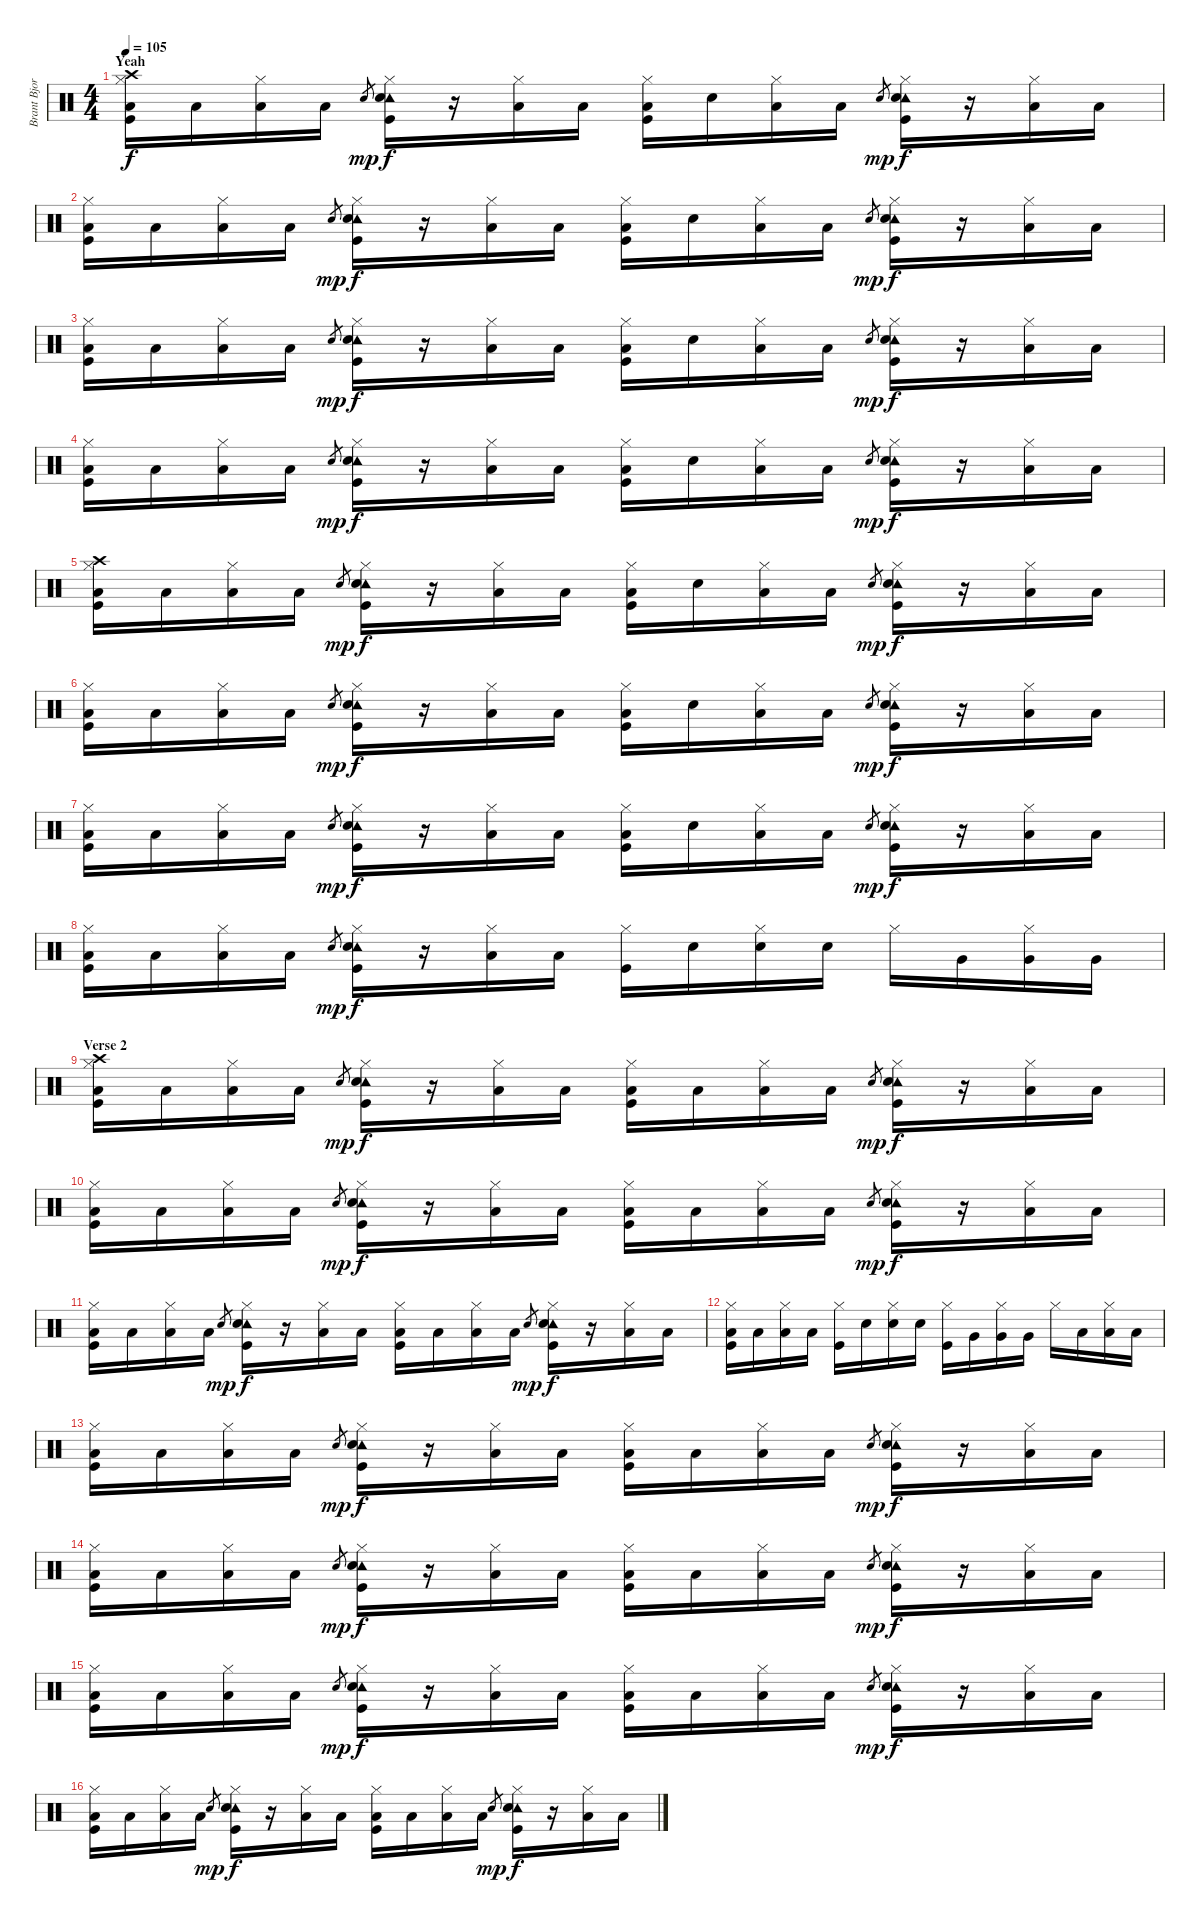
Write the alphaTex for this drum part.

\track ("Brant Bjork - Drums" "Brant Bjor") {instrument percussion}
\staff {score}
\articulation defaults
\ts (4 4)
\section ("" "Yeah")
\tempo 105
\clef neutral
\ks c
("Crash high (hit)" "Hi-Hat (closed)" "Low Floor Tom (hit)" "Kick (hit)").16{dy f} "Low Floor Tom (hit)".16 ("Hi-Hat (closed)" "Low Floor Tom (hit)").16 "Low Floor Tom (hit)".16 "Snare (hit) 2".8{gr dy mp} ("Tambourine (hit)" "Hi-Hat (closed)" "Snare (hit) 2" "Kick (hit)").16{dy f} r.16 ("Hi-Hat (closed)" "Low Floor Tom (hit)").16 "Low Floor Tom (hit)".16 ("Hi-Hat (closed)" "Low Floor Tom (hit)" "Kick (hit)").16 "Snare (hit) 2".16 ("Hi-Hat (closed)" "Low Floor Tom (hit)").16 "Low Floor Tom (hit)".16 "Snare (hit) 2".8{gr dy mp} ("Tambourine (hit)" "Hi-Hat (closed)" "Snare (hit) 2" "Kick (hit)").16{dy f} r.16 ("Hi-Hat (closed)" "Low Floor Tom (hit)").16 "Low Floor Tom (hit)".16 |
("Hi-Hat (closed)" "Low Floor Tom (hit)" "Kick (hit)").16 "Low Floor Tom (hit)".16 ("Hi-Hat (closed)" "Low Floor Tom (hit)").16 "Low Floor Tom (hit)".16 "Snare (hit) 2".8{gr dy mp} ("Tambourine (hit)" "Hi-Hat (closed)" "Snare (hit) 2" "Kick (hit)").16{dy f} r.16 ("Hi-Hat (closed)" "Low Floor Tom (hit)").16 "Low Floor Tom (hit)".16 ("Hi-Hat (closed)" "Low Floor Tom (hit)" "Kick (hit)").16 "Snare (hit) 2".16 ("Hi-Hat (closed)" "Low Floor Tom (hit)").16 "Low Floor Tom (hit)".16 "Snare (hit) 2".8{gr dy mp} ("Tambourine (hit)" "Hi-Hat (closed)" "Snare (hit) 2" "Kick (hit)").16{dy f} r.16 ("Hi-Hat (closed)" "Low Floor Tom (hit)").16 "Low Floor Tom (hit)".16 |
("Hi-Hat (closed)" "Low Floor Tom (hit)" "Kick (hit)").16 "Low Floor Tom (hit)".16 ("Hi-Hat (closed)" "Low Floor Tom (hit)").16 "Low Floor Tom (hit)".16 "Snare (hit) 2".8{gr dy mp} ("Tambourine (hit)" "Hi-Hat (closed)" "Snare (hit) 2" "Kick (hit)").16{dy f} r.16 ("Hi-Hat (closed)" "Low Floor Tom (hit)").16 "Low Floor Tom (hit)".16 ("Hi-Hat (closed)" "Low Floor Tom (hit)" "Kick (hit)").16 "Snare (hit) 2".16 ("Hi-Hat (closed)" "Low Floor Tom (hit)").16 "Low Floor Tom (hit)".16 "Snare (hit) 2".8{gr dy mp} ("Tambourine (hit)" "Hi-Hat (closed)" "Snare (hit) 2" "Kick (hit)").16{dy f} r.16 ("Hi-Hat (closed)" "Low Floor Tom (hit)").16 "Low Floor Tom (hit)".16 |
("Hi-Hat (closed)" "Low Floor Tom (hit)" "Kick (hit)").16 "Low Floor Tom (hit)".16 ("Hi-Hat (closed)" "Low Floor Tom (hit)").16 "Low Floor Tom (hit)".16 "Snare (hit) 2".8{gr dy mp} ("Tambourine (hit)" "Hi-Hat (closed)" "Snare (hit) 2" "Kick (hit)").16{dy f} r.16 ("Hi-Hat (closed)" "Low Floor Tom (hit)").16 "Low Floor Tom (hit)".16 ("Hi-Hat (closed)" "Low Floor Tom (hit)" "Kick (hit)").16 "Snare (hit) 2".16 ("Hi-Hat (closed)" "Low Floor Tom (hit)").16 "Low Floor Tom (hit)".16 "Snare (hit) 2".8{gr dy mp} ("Tambourine (hit)" "Hi-Hat (closed)" "Snare (hit) 2" "Kick (hit)").16{dy f} r.16 ("Hi-Hat (closed)" "Low Floor Tom (hit)").16 "Low Floor Tom (hit)".16 |
("Crash high (hit)" "Hi-Hat (closed)" "Low Floor Tom (hit)" "Kick (hit)").16 "Low Floor Tom (hit)".16 ("Hi-Hat (closed)" "Low Floor Tom (hit)").16 "Low Floor Tom (hit)".16 "Snare (hit) 2".8{gr dy mp} ("Tambourine (hit)" "Hi-Hat (closed)" "Snare (hit) 2" "Kick (hit)").16{dy f} r.16 ("Hi-Hat (closed)" "Low Floor Tom (hit)").16 "Low Floor Tom (hit)".16 ("Hi-Hat (closed)" "Low Floor Tom (hit)" "Kick (hit)").16 "Snare (hit) 2".16 ("Hi-Hat (closed)" "Low Floor Tom (hit)").16 "Low Floor Tom (hit)".16 "Snare (hit) 2".8{gr dy mp} ("Tambourine (hit)" "Hi-Hat (closed)" "Snare (hit) 2" "Kick (hit)").16{dy f} r.16 ("Hi-Hat (closed)" "Low Floor Tom (hit)").16 "Low Floor Tom (hit)".16 |
("Hi-Hat (closed)" "Low Floor Tom (hit)" "Kick (hit)").16 "Low Floor Tom (hit)".16 ("Hi-Hat (closed)" "Low Floor Tom (hit)").16 "Low Floor Tom (hit)".16 "Snare (hit) 2".8{gr dy mp} ("Tambourine (hit)" "Hi-Hat (closed)" "Snare (hit) 2" "Kick (hit)").16{dy f} r.16 ("Hi-Hat (closed)" "Low Floor Tom (hit)").16 "Low Floor Tom (hit)".16 ("Hi-Hat (closed)" "Low Floor Tom (hit)" "Kick (hit)").16 "Snare (hit) 2".16 ("Hi-Hat (closed)" "Low Floor Tom (hit)").16 "Low Floor Tom (hit)".16 "Snare (hit) 2".8{gr dy mp} ("Tambourine (hit)" "Hi-Hat (closed)" "Snare (hit) 2" "Kick (hit)").16{dy f} r.16 ("Hi-Hat (closed)" "Low Floor Tom (hit)").16 "Low Floor Tom (hit)".16 |
("Hi-Hat (closed)" "Low Floor Tom (hit)" "Kick (hit)").16 "Low Floor Tom (hit)".16 ("Hi-Hat (closed)" "Low Floor Tom (hit)").16 "Low Floor Tom (hit)".16 "Snare (hit) 2".8{gr dy mp} ("Tambourine (hit)" "Hi-Hat (closed)" "Snare (hit) 2" "Kick (hit)").16{dy f} r.16 ("Hi-Hat (closed)" "Low Floor Tom (hit)").16 "Low Floor Tom (hit)".16 ("Hi-Hat (closed)" "Low Floor Tom (hit)" "Kick (hit)").16 "Snare (hit) 2".16 ("Hi-Hat (closed)" "Low Floor Tom (hit)").16 "Low Floor Tom (hit)".16 "Snare (hit) 2".8{gr dy mp} ("Tambourine (hit)" "Hi-Hat (closed)" "Snare (hit) 2" "Kick (hit)").16{dy f} r.16 ("Hi-Hat (closed)" "Low Floor Tom (hit)").16 "Low Floor Tom (hit)".16 |
("Hi-Hat (closed)" "Low Floor Tom (hit)" "Kick (hit)").16 "Low Floor Tom (hit)".16 ("Hi-Hat (closed)" "Low Floor Tom (hit)").16 "Low Floor Tom (hit)".16 "Snare (hit) 2".8{gr dy mp} ("Tambourine (hit)" "Hi-Hat (closed)" "Snare (hit) 2" "Kick (hit)").16{dy f} r.16 ("Hi-Hat (closed)" "Low Floor Tom (hit)").16 "Low Floor Tom (hit)".16 ("Hi-Hat (closed)" "Kick (hit)").16 "Snare (hit) 2".16 ("Hi-Hat (closed)" "Snare (hit) 2").16 "Snare (hit) 2".16 "Hi-Hat (closed)".16 "Very Low Tom (hit)".16 ("Hi-Hat (closed)" "Very Low Tom (hit)").16 "Very Low Tom (hit)".16 |
\section ("" "Verse 2")
("Crash high (hit)" "Hi-Hat (closed)" "Low Floor Tom (hit)" "Kick (hit)").16 "Low Floor Tom (hit)".16 ("Hi-Hat (closed)" "Low Floor Tom (hit)").16 "Low Floor Tom (hit)".16 "Snare (hit) 2".8{gr dy mp} ("Tambourine (hit)" "Hi-Hat (closed)" "Snare (hit) 2" "Kick (hit)").16{dy f} r.16 ("Hi-Hat (closed)" "Low Floor Tom (hit)").16 "Low Floor Tom (hit)".16 ("Hi-Hat (closed)" "Low Floor Tom (hit)" "Kick (hit)").16 "Low Floor Tom (hit)".16 ("Hi-Hat (closed)" "Low Floor Tom (hit)").16 "Low Floor Tom (hit)".16 "Snare (hit) 2".8{gr dy mp} ("Tambourine (hit)" "Hi-Hat (closed)" "Snare (hit) 2" "Kick (hit)").16{dy f} r.16 ("Hi-Hat (closed)" "Low Floor Tom (hit)").16 "Low Floor Tom (hit)".16 |
("Hi-Hat (closed)" "Low Floor Tom (hit)" "Kick (hit)").16 "Low Floor Tom (hit)".16 ("Hi-Hat (closed)" "Low Floor Tom (hit)").16 "Low Floor Tom (hit)".16 "Snare (hit) 2".8{gr dy mp} ("Tambourine (hit)" "Hi-Hat (closed)" "Snare (hit) 2" "Kick (hit)").16{dy f} r.16 ("Hi-Hat (closed)" "Low Floor Tom (hit)").16 "Low Floor Tom (hit)".16 ("Hi-Hat (closed)" "Low Floor Tom (hit)" "Kick (hit)").16 "Low Floor Tom (hit)".16 ("Hi-Hat (closed)" "Low Floor Tom (hit)").16 "Low Floor Tom (hit)".16 "Snare (hit) 2".8{gr dy mp} ("Tambourine (hit)" "Hi-Hat (closed)" "Snare (hit) 2" "Kick (hit)").16{dy f} r.16 ("Hi-Hat (closed)" "Low Floor Tom (hit)").16 "Low Floor Tom (hit)".16 |
("Hi-Hat (closed)" "Low Floor Tom (hit)" "Kick (hit)").16 "Low Floor Tom (hit)".16 ("Hi-Hat (closed)" "Low Floor Tom (hit)").16 "Low Floor Tom (hit)".16 "Snare (hit) 2".8{gr dy mp} ("Tambourine (hit)" "Hi-Hat (closed)" "Snare (hit) 2" "Kick (hit)").16{dy f} r.16 ("Hi-Hat (closed)" "Low Floor Tom (hit)").16 "Low Floor Tom (hit)".16 ("Hi-Hat (closed)" "Low Floor Tom (hit)" "Kick (hit)").16 "Low Floor Tom (hit)".16 ("Hi-Hat (closed)" "Low Floor Tom (hit)").16 "Low Floor Tom (hit)".16 "Snare (hit) 2".8{gr dy mp} ("Tambourine (hit)" "Hi-Hat (closed)" "Snare (hit) 2" "Kick (hit)").16{dy f} r.16 ("Hi-Hat (closed)" "Low Floor Tom (hit)").16 "Low Floor Tom (hit)".16 |
("Hi-Hat (closed)" "Low Floor Tom (hit)" "Kick (hit)").16 "Low Floor Tom (hit)".16 ("Hi-Hat (closed)" "Low Floor Tom (hit)").16 "Low Floor Tom (hit)".16 ("Hi-Hat (closed)" "Kick (hit)").16 "Snare (hit) 2".16 ("Hi-Hat (closed)" "Snare (hit) 2").16 "Snare (hit) 2".16 ("Hi-Hat (closed)" "Kick (hit)").16 "Very Low Tom (hit)".16 ("Hi-Hat (closed)" "Very Low Tom (hit)").16 "Very Low Tom (hit)".16 "Hi-Hat (closed)".16 "Low Floor Tom (hit)".16 ("Hi-Hat (closed)" "Low Floor Tom (hit)").16 "Low Floor Tom (hit)".16 |
("Hi-Hat (closed)" "Low Floor Tom (hit)" "Kick (hit)").16 "Low Floor Tom (hit)".16 ("Hi-Hat (closed)" "Low Floor Tom (hit)").16 "Low Floor Tom (hit)".16 "Snare (hit) 2".8{gr dy mp} ("Tambourine (hit)" "Hi-Hat (closed)" "Snare (hit) 2" "Kick (hit)").16{dy f} r.16 ("Hi-Hat (closed)" "Low Floor Tom (hit)").16 "Low Floor Tom (hit)".16 ("Hi-Hat (closed)" "Low Floor Tom (hit)" "Kick (hit)").16 "Low Floor Tom (hit)".16 ("Hi-Hat (closed)" "Low Floor Tom (hit)").16 "Low Floor Tom (hit)".16 "Snare (hit) 2".8{gr dy mp} ("Tambourine (hit)" "Hi-Hat (closed)" "Snare (hit) 2" "Kick (hit)").16{dy f} r.16 ("Hi-Hat (closed)" "Low Floor Tom (hit)").16 "Low Floor Tom (hit)".16 |
("Hi-Hat (closed)" "Low Floor Tom (hit)" "Kick (hit)").16 "Low Floor Tom (hit)".16 ("Hi-Hat (closed)" "Low Floor Tom (hit)").16 "Low Floor Tom (hit)".16 "Snare (hit) 2".8{gr dy mp} ("Tambourine (hit)" "Hi-Hat (closed)" "Snare (hit) 2" "Kick (hit)").16{dy f} r.16 ("Hi-Hat (closed)" "Low Floor Tom (hit)").16 "Low Floor Tom (hit)".16 ("Hi-Hat (closed)" "Low Floor Tom (hit)" "Kick (hit)").16 "Low Floor Tom (hit)".16 ("Hi-Hat (closed)" "Low Floor Tom (hit)").16 "Low Floor Tom (hit)".16 "Snare (hit) 2".8{gr dy mp} ("Tambourine (hit)" "Hi-Hat (closed)" "Snare (hit) 2" "Kick (hit)").16{dy f} r.16 ("Hi-Hat (closed)" "Low Floor Tom (hit)").16 "Low Floor Tom (hit)".16 |
("Hi-Hat (closed)" "Low Floor Tom (hit)" "Kick (hit)").16 "Low Floor Tom (hit)".16 ("Hi-Hat (closed)" "Low Floor Tom (hit)").16 "Low Floor Tom (hit)".16 "Snare (hit) 2".8{gr dy mp} ("Tambourine (hit)" "Hi-Hat (closed)" "Snare (hit) 2" "Kick (hit)").16{dy f} r.16 ("Hi-Hat (closed)" "Low Floor Tom (hit)").16 "Low Floor Tom (hit)".16 ("Hi-Hat (closed)" "Low Floor Tom (hit)" "Kick (hit)").16 "Low Floor Tom (hit)".16 ("Hi-Hat (closed)" "Low Floor Tom (hit)").16 "Low Floor Tom (hit)".16 "Snare (hit) 2".8{gr dy mp} ("Tambourine (hit)" "Hi-Hat (closed)" "Snare (hit) 2" "Kick (hit)").16{dy f} r.16 ("Hi-Hat (closed)" "Low Floor Tom (hit)").16 "Low Floor Tom (hit)".16 |
("Hi-Hat (closed)" "Low Floor Tom (hit)" "Kick (hit)").16 "Low Floor Tom (hit)".16 ("Hi-Hat (closed)" "Low Floor Tom (hit)").16 "Low Floor Tom (hit)".16 "Snare (hit) 2".8{gr dy mp} ("Tambourine (hit)" "Hi-Hat (closed)" "Snare (hit) 2" "Kick (hit)").16{dy f} r.16 ("Hi-Hat (closed)" "Low Floor Tom (hit)").16 "Low Floor Tom (hit)".16 ("Hi-Hat (closed)" "Low Floor Tom (hit)" "Kick (hit)").16 "Low Floor Tom (hit)".16 ("Hi-Hat (closed)" "Low Floor Tom (hit)").16 "Low Floor Tom (hit)".16 "Snare (hit) 2".8{gr dy mp} ("Tambourine (hit)" "Hi-Hat (closed)" "Snare (hit) 2" "Kick (hit)").16{dy f} r.16 ("Hi-Hat (closed)" "Low Floor Tom (hit)").16 "Low Floor Tom (hit)".16
